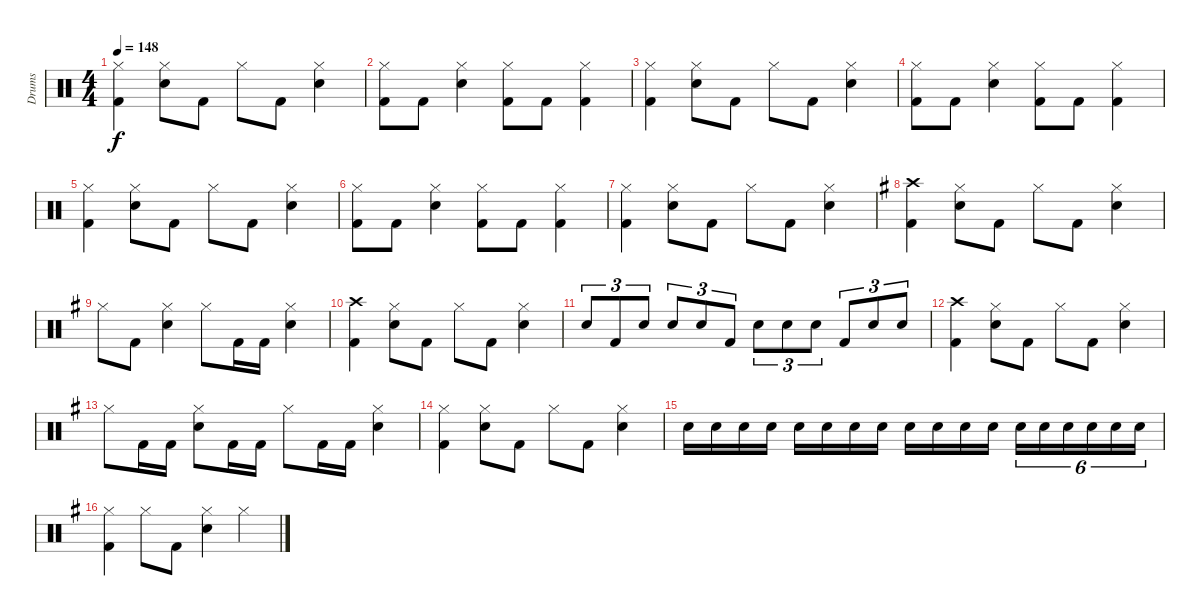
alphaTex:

\track ("Drums" "Drums") {instrument percussion}
\staff {score}
\articulation defaults
\ts (4 4)
\tempo 148
\clef neutral
\ks aminor
("Kick (hit) 2" "Hi-Hat (closed)").4{dy f} ("Snare (hit) 2" "Hi-Hat (closed)").8 "Kick (hit) 2".8 "Hi-Hat (closed)".8 "Kick (hit) 2".8 ("Snare (hit) 2" "Hi-Hat (closed)").4 |
("Kick (hit) 2" "Hi-Hat (closed)").8 "Kick (hit) 2".8 ("Snare (hit) 2" "Hi-Hat (closed)").4 ("Kick (hit) 2" "Hi-Hat (closed)").8 "Kick (hit) 2".8 ("Kick (hit) 2" "Hi-Hat (closed)").4 |
("Kick (hit) 2" "Hi-Hat (closed)").4 ("Snare (hit) 2" "Hi-Hat (closed)").8 "Kick (hit) 2".8 "Hi-Hat (closed)".8 "Kick (hit) 2".8 ("Snare (hit) 2" "Hi-Hat (closed)").4 |
("Kick (hit) 2" "Hi-Hat (closed)").8 "Kick (hit) 2".8 ("Snare (hit) 2" "Hi-Hat (closed)").4 ("Kick (hit) 2" "Hi-Hat (closed)").8 "Kick (hit) 2".8 ("Kick (hit) 2" "Hi-Hat (closed)").4 |
("Kick (hit) 2" "Hi-Hat (closed)").4 ("Snare (hit) 2" "Hi-Hat (closed)").8 "Kick (hit) 2".8 "Hi-Hat (closed)".8 "Kick (hit) 2".8 ("Snare (hit) 2" "Hi-Hat (closed)").4 |
("Kick (hit) 2" "Hi-Hat (closed)").8 "Kick (hit) 2".8 ("Snare (hit) 2" "Hi-Hat (closed)").4 ("Kick (hit) 2" "Hi-Hat (closed)").8 "Kick (hit) 2".8 ("Kick (hit) 2" "Hi-Hat (closed)").4 |
("Kick (hit) 2" "Hi-Hat (closed)").4 ("Snare (hit) 2" "Hi-Hat (closed)").8 "Kick (hit) 2".8 "Hi-Hat (closed)".8 "Kick (hit) 2".8 ("Snare (hit) 2" "Hi-Hat (closed)").4 |
\ks g
("Kick (hit) 2" "Crash high (hit)").4 ("Snare (hit) 2" "Hi-Hat (closed)").8 "Kick (hit) 2".8 "Hi-Hat (closed)".8 "Kick (hit) 2".8 ("Snare (hit) 2" "Hi-Hat (closed)").4 |
"Hi-Hat (closed)".8 "Kick (hit) 2".8 ("Snare (hit) 2" "Hi-Hat (closed)").4 "Hi-Hat (closed)".8 "Kick (hit) 2".16 "Kick (hit) 2".16 ("Snare (hit) 2" "Hi-Hat (closed)").4 |
("Kick (hit) 2" "Crash high (hit)").4 ("Snare (hit) 2" "Hi-Hat (closed)").8 "Kick (hit) 2".8 "Hi-Hat (closed)".8 "Kick (hit) 2".8 ("Snare (hit) 2" "Hi-Hat (closed)").4 |
"Snare (hit) 2".8{tu (3 2)} "Kick (hit) 2".8{tu (3 2)} "Snare (hit) 2".8{tu (3 2)} "Snare (hit) 2".8{tu (3 2)} "Snare (hit) 2".8{tu (3 2)} "Kick (hit) 2".8{tu (3 2)} "Snare (hit) 2".8{tu (3 2)} "Snare (hit) 2".8{tu (3 2)} "Snare (hit) 2".8{tu (3 2)} "Kick (hit) 2".8{tu (3 2)} "Snare (hit) 2".8{tu (3 2)} "Snare (hit) 2".8{tu (3 2)} |
("Kick (hit) 2" "Crash high (hit)").4 ("Snare (hit) 2" "Hi-Hat (closed)").8 "Kick (hit) 2".8 "Hi-Hat (closed)".8 "Kick (hit) 2".8 ("Snare (hit) 2" "Hi-Hat (closed)").4 |
"Hi-Hat (closed)".8 "Kick (hit) 2".16 "Kick (hit) 2".16 ("Snare (hit) 2" "Hi-Hat (closed)").8 "Kick (hit) 2".16 "Kick (hit) 2".16 "Hi-Hat (closed)".8 "Kick (hit) 2".16 "Kick (hit) 2".16 ("Snare (hit) 2" "Hi-Hat (closed)").4 |
("Kick (hit) 2" "Hi-Hat (closed)").4 ("Snare (hit) 2" "Hi-Hat (closed)").8 "Kick (hit) 2".8 "Hi-Hat (closed)".8 "Kick (hit) 2".8 ("Snare (hit) 2" "Hi-Hat (closed)").4 |
"Snare (hit) 2".16 "Snare (hit) 2".16 "Snare (hit) 2".16 "Snare (hit) 2".16 "Snare (hit) 2".16 "Snare (hit) 2".16 "Snare (hit) 2".16 "Snare (hit) 2".16 "Snare (hit) 2".16 "Snare (hit) 2".16 "Snare (hit) 2".16 "Snare (hit) 2".16 "Snare (hit) 2".16{tu (6 4)} "Snare (hit) 2".16{tu (6 4)} "Snare (hit) 2".16{tu (6 4)} "Snare (hit) 2".16{tu (6 4)} "Snare (hit) 2".16{tu (6 4)} "Snare (hit) 2".16{tu (6 4)} |
("Kick (hit) 2" "Hi-Hat (closed)").4 "Hi-Hat (closed)".8 "Kick (hit) 2".8 ("Snare (hit) 2" "Hi-Hat (closed)").4 "Hi-Hat (closed)".4
